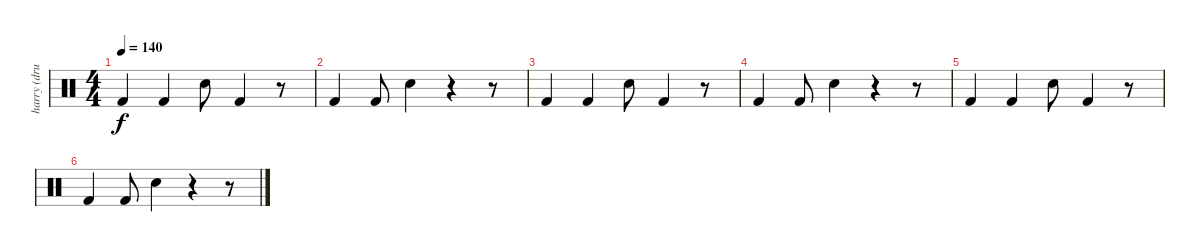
\track ("harry (drum)" "harry (dru") {instrument percussion}
\staff {score}
\articulation defaults
\ts (4 4)
\tempo 140
\clef neutral
\ks c "Kick (hit) 2".4{dy f} "Kick (hit) 2".4 "Snare (hit) 2".8 "Kick (hit) 2".4
r.8 |
"Kick (hit) 2".4 "Kick (hit) 2".8 "Snare (hit) 2".4 r.4 r.8 |
"Kick (hit) 2".4 "Kick (hit) 2".4 "Snare (hit) 2".8 "Kick (hit) 2".4 r.8 |
"Kick (hit) 2".4 "Kick (hit) 2".8 "Snare (hit) 2".4 r.4 r.8 |
"Kick (hit) 2".4 "Kick (hit) 2".4 "Snare (hit) 2".8 "Kick (hit) 2".4 r.8 |
"Kick (hit) 2".4 "Kick (hit) 2".8 "Snare (hit) 2".4 r.4 r.8
